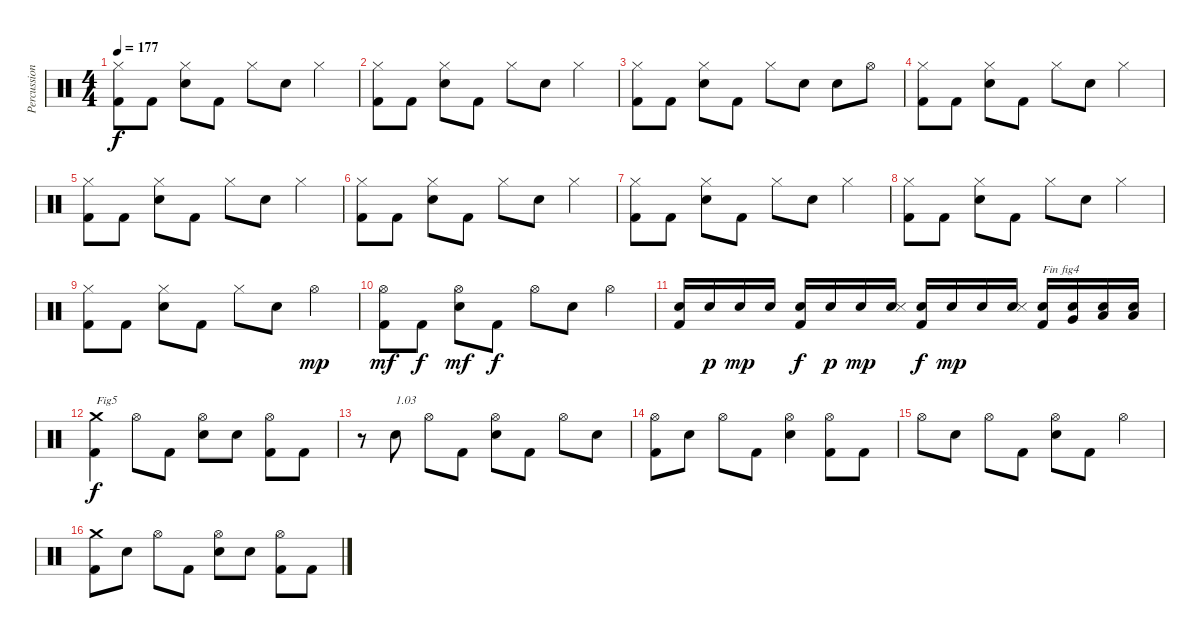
\track ("Percussions" "Percussion") {instrument percussion}
\staff {score}
\articulation defaults
\ts (4 4)
\tempo 177
\clef neutral
\ks c
("Kick (hit) 2" "Hi-Hat (closed)").8{dy f} "Kick (hit) 2".8 ("Electric Snare (hit)" "Hi-Hat (closed)").8 "Kick (hit) 2".8 "Hi-Hat (closed)".8 "Electric Snare (hit)".8 "Hi-Hat (closed)".4 |
("Kick (hit) 2" "Hi-Hat (closed)").8 "Kick (hit) 2".8 ("Electric Snare (hit)" "Hi-Hat (closed)").8 "Kick (hit) 2".8 "Hi-Hat (closed)".8 "Electric Snare (hit)".8 "Hi-Hat (closed)".4 |
("Kick (hit) 2" "Hi-Hat (closed)").8 "Kick (hit) 2".8 ("Electric Snare (hit)" "Hi-Hat (closed)").8 "Kick (hit) 2".8 "Hi-Hat (closed)".8 "Electric Snare (hit)".8 "Electric Snare (hit)".8 "Hi-Hat (open)".8 |
("Kick (hit) 2" "Hi-Hat (closed)").8 "Kick (hit) 2".8 ("Electric Snare (hit)" "Hi-Hat (closed)").8 "Kick (hit) 2".8 "Hi-Hat (closed)".8 "Electric Snare (hit)".8 "Hi-Hat (closed)".4 |
("Kick (hit) 2" "Hi-Hat (closed)").8 "Kick (hit) 2".8 ("Electric Snare (hit)" "Hi-Hat (closed)").8 "Kick (hit) 2".8 "Hi-Hat (closed)".8 "Electric Snare (hit)".8 "Hi-Hat (closed)".4 |
("Kick (hit) 2" "Hi-Hat (closed)").8 "Kick (hit) 2".8 ("Electric Snare (hit)" "Hi-Hat (closed)").8 "Kick (hit) 2".8 "Hi-Hat (closed)".8 "Electric Snare (hit)".8 "Hi-Hat (closed)".4 |
("Kick (hit) 2" "Hi-Hat (closed)").8 "Kick (hit) 2".8 ("Electric Snare (hit)" "Hi-Hat (closed)").8 "Kick (hit) 2".8 "Hi-Hat (closed)".8 "Electric Snare (hit)".8 "Hi-Hat (closed)".4 |
("Kick (hit) 2" "Hi-Hat (closed)").8 "Kick (hit) 2".8 ("Electric Snare (hit)" "Hi-Hat (closed)").8 "Kick (hit) 2".8 "Hi-Hat (closed)".8 "Electric Snare (hit)".8 "Hi-Hat (closed)".4 |
("Kick (hit) 2" "Hi-Hat (closed)").8 "Kick (hit) 2".8 ("Electric Snare (hit)" "Hi-Hat (closed)").8 "Kick (hit) 2".8 "Hi-Hat (closed)".8 "Electric Snare (hit)".8 "Hi-Hat (open)".4{dy mp} |
("Kick (hit) 2" "Hi-Hat (open)").8{dy mf} "Kick (hit) 2".8{dy f} ("Electric Snare (hit)" "Hi-Hat (open)").8{dy mf} "Kick (hit) 2".8{dy f} "Hi-Hat (open)".8 "Electric Snare (hit)".8 "Hi-Hat (open)".4 |
("Kick (hit) 2" "Electric Snare (hit)").16 "Electric Snare (hit)".16{dy p} "Electric Snare (hit)".16{dy mp} "Electric Snare (hit)".16 ("Kick (hit) 2" "Electric Snare (hit)").16{dy f} "Electric Snare (hit)".16{dy p} "Electric Snare (hit)".16{dy mp} ("Electric Snare (hit)" "Snare (side stick) 3").16 ("Kick (hit) 2" "Electric Snare (hit)").16{dy f} "Electric Snare (hit)".16{dy mp} "Electric Snare (hit)".16 ("Electric Snare (hit)" "Snare (side stick) 3").16 ("Kick (hit) 2" "Electric Snare (hit)").16{txt "Fin fig4"} ("Very Low Tom (hit)" "Electric Snare (hit)").16 ("Low Tom (hit)" "Electric Snare (hit)").16 ("Low Floor Tom (hit)" "Electric Snare (hit)").16 |
("Kick (hit) 2" "Crash medium (hit)").4{txt "Fig5" dy f} "Hi-Hat (open)".8 "Kick (hit) 2".8 ("Electric Snare (hit)" "Hi-Hat (open)").8 "Electric Snare (hit)".8 ("Kick (hit) 2" "Hi-Hat (open)").8 "Kick (hit) 2".8 |
r.8 "Electric Snare (hit)".8{txt "1.03"} "Hi-Hat (open)".8 "Kick (hit) 2".8 ("Electric Snare (hit)" "Hi-Hat (open)").8 "Kick (hit) 2".8 "Hi-Hat (open)".8 "Electric Snare (hit)".8 |
("Kick (hit) 2" "Hi-Hat (open)").8 "Electric Snare (hit)".8 "Hi-Hat (open)".8 "Kick (hit) 2".8 ("Electric Snare (hit)" "Hi-Hat (open)").4 ("Kick (hit) 2" "Hi-Hat (open)").8 "Kick (hit) 2".8 |
"Hi-Hat (open)".8 "Electric Snare (hit)".8 "Hi-Hat (open)".8 "Kick (hit) 2".8 ("Electric Snare (hit)" "Hi-Hat (open)").8 "Kick (hit) 2".8 "Hi-Hat (open)".4 |
("Kick (hit) 2" "Crash medium (hit)").8 "Electric Snare (hit)".8 "Hi-Hat (open)".8 "Kick (hit) 2".8 ("Electric Snare (hit)" "Hi-Hat (open)").8 "Electric Snare (hit)".8 ("Kick (hit) 2" "Hi-Hat (open)").8 "Kick (hit) 2".8
